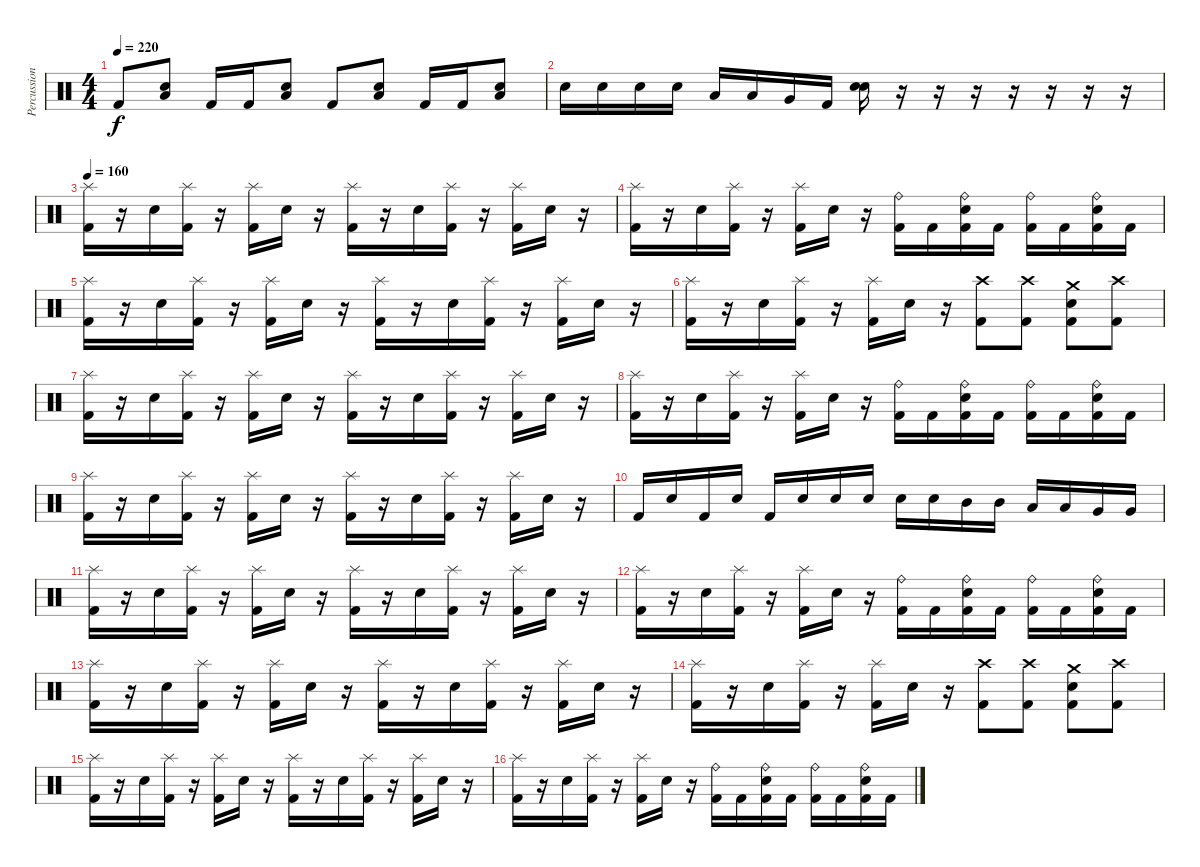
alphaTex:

\track ("Percussion" "Percussion") {instrument percussion}
\staff {score}
\articulation defaults
\ts (4 4)
\tempo 220
\clef neutral
\ks c "Kick (hit) 2".8{dy f}
("Low Floor Tom (hit)" "Snare (hit) 2").8 "Kick (hit) 2".16 "Kick (hit) 2".16 ("Low Floor Tom (hit)" "Snare (hit) 2").8 "Kick (hit) 2".8 ("Low Floor Tom (hit)" "Snare (hit) 2").8 "Kick (hit) 2".16 "Kick (hit) 2".16 ("Low Floor Tom (hit)" "Snare (hit) 2").8 |
"Snare (hit) 2".16 "Snare (hit) 2".16 "Snare (hit) 2".16 "Snare (hit) 2".16 "Low Tom (hit)".16 "Low Tom (hit)".16 "Very Low Tom (hit)".16 "Kick (hit) 2".16 ("Snare (hit) 2" "Snare (hit) 2").16 r.16 r.16 r.16 r.16 r.16 r.16 r.16 |
\tempo 160
("Splash (hit)" "Kick (hit) 2").16 r.16 "Snare (hit) 2".16 ("Splash (hit)" "Kick (hit) 2").16 r.16 ("Splash (hit)" "Kick (hit) 2").16 "Snare (hit) 2".16 r.16 ("Splash (hit)" "Kick (hit) 2").16 r.16 "Snare (hit) 2".16 ("Splash (hit)" "Kick (hit) 2").16 r.16 ("Splash (hit)" "Kick (hit) 2").16 "Snare (hit) 2".16 r.16 |
("Splash (hit)" "Kick (hit) 2").16 r.16 "Snare (hit) 2".16 ("Splash (hit)" "Kick (hit) 2").16 r.16 ("Splash (hit)" "Kick (hit) 2").16 "Snare (hit) 2".16 r.16 ("Ride (bell)" "Kick (hit) 2").16 "Kick (hit) 2".16 ("Ride (bell)" "Snare (hit) 2" "Kick (hit) 2").16 "Kick (hit) 2".16 ("Ride (bell)" "Kick (hit) 2").16 "Kick (hit) 2".16 ("Ride (bell)" "Snare (hit) 2" "Kick (hit) 2").16 "Kick (hit) 2".16 |
("Splash (hit)" "Kick (hit) 2").16 r.16 "Snare (hit) 2".16 ("Splash (hit)" "Kick (hit) 2").16 r.16 ("Splash (hit)" "Kick (hit) 2").16 "Snare (hit) 2".16 r.16 ("Splash (hit)" "Kick (hit) 2").16 r.16 "Snare (hit) 2".16 ("Splash (hit)" "Kick (hit) 2").16 r.16 ("Splash (hit)" "Kick (hit) 2").16 "Snare (hit) 2".16 r.16 |
("Splash (hit)" "Kick (hit) 2").16 r.16 "Snare (hit) 2".16 ("Splash (hit)" "Kick (hit) 2").16 r.16 ("Splash (hit)" "Kick (hit) 2").16 "Snare (hit) 2".16 r.16 ("Crash high (hit)" "Kick (hit) 2").8 ("Crash high (hit)" "Kick (hit) 2").8 ("Crash medium (hit)" "Snare (hit) 2" "Kick (hit) 2").8 ("Crash high (hit)" "Kick (hit) 2").8 |
("Splash (hit)" "Kick (hit) 2").16 r.16 "Snare (hit) 2".16 ("Splash (hit)" "Kick (hit) 2").16 r.16 ("Splash (hit)" "Kick (hit) 2").16 "Snare (hit) 2".16 r.16 ("Splash (hit)" "Kick (hit) 2").16 r.16 "Snare (hit) 2".16 ("Splash (hit)" "Kick (hit) 2").16 r.16 ("Splash (hit)" "Kick (hit) 2").16 "Snare (hit) 2".16 r.16 |
("Splash (hit)" "Kick (hit) 2").16 r.16 "Snare (hit) 2".16 ("Splash (hit)" "Kick (hit) 2").16 r.16 ("Splash (hit)" "Kick (hit) 2").16 "Snare (hit) 2".16 r.16 ("Ride (bell)" "Kick (hit) 2").16 "Kick (hit) 2".16 ("Ride (bell)" "Snare (hit) 2" "Kick (hit) 2").16 "Kick (hit) 2".16 ("Ride (bell)" "Kick (hit) 2").16 "Kick (hit) 2".16 ("Ride (bell)" "Snare (hit) 2" "Kick (hit) 2").16 "Kick (hit) 2".16 |
("Splash (hit)" "Kick (hit) 2").16 r.16 "Snare (hit) 2".16 ("Splash (hit)" "Kick (hit) 2").16 r.16 ("Splash (hit)" "Kick (hit) 2").16 "Snare (hit) 2".16 r.16 ("Splash (hit)" "Kick (hit) 2").16 r.16 "Snare (hit) 2".16 ("Splash (hit)" "Kick (hit) 2").16 r.16 ("Splash (hit)" "Kick (hit) 2").16 "Snare (hit) 2".16 r.16 |
"Kick (hit) 2".16 "Snare (hit) 2".16 "Kick (hit) 2".16 "Snare (hit) 2".16 "Kick (hit) 2".16 "Snare (hit) 2".16 "Snare (hit) 2".16 "Snare (hit) 2".16 "Snare (hit) 2".16 "Snare (hit) 2".16 "Mid Tom (hit)".16 "Mid Tom (hit)".16 "Low Tom (hit)".16 "Low Tom (hit)".16 "Very Low Tom (hit)".16 "Very Low Tom (hit)".16 |
("Splash (hit)" "Kick (hit) 2").16 r.16 "Snare (hit) 2".16 ("Splash (hit)" "Kick (hit) 2").16 r.16 ("Splash (hit)" "Kick (hit) 2").16 "Snare (hit) 2".16 r.16 ("Splash (hit)" "Kick (hit) 2").16 r.16 "Snare (hit) 2".16 ("Splash (hit)" "Kick (hit) 2").16 r.16 ("Splash (hit)" "Kick (hit) 2").16 "Snare (hit) 2".16 r.16 |
("Splash (hit)" "Kick (hit) 2").16 r.16 "Snare (hit) 2".16 ("Splash (hit)" "Kick (hit) 2").16 r.16 ("Splash (hit)" "Kick (hit) 2").16 "Snare (hit) 2".16 r.16 ("Ride (bell)" "Kick (hit) 2").16 "Kick (hit) 2".16 ("Ride (bell)" "Snare (hit) 2" "Kick (hit) 2").16 "Kick (hit) 2".16 ("Ride (bell)" "Kick (hit) 2").16 "Kick (hit) 2".16 ("Ride (bell)" "Snare (hit) 2" "Kick (hit) 2").16 "Kick (hit) 2".16 |
("Splash (hit)" "Kick (hit) 2").16 r.16 "Snare (hit) 2".16 ("Splash (hit)" "Kick (hit) 2").16 r.16 ("Splash (hit)" "Kick (hit) 2").16 "Snare (hit) 2".16 r.16 ("Splash (hit)" "Kick (hit) 2").16 r.16 "Snare (hit) 2".16 ("Splash (hit)" "Kick (hit) 2").16 r.16 ("Splash (hit)" "Kick (hit) 2").16 "Snare (hit) 2".16 r.16 |
("Splash (hit)" "Kick (hit) 2").16 r.16 "Snare (hit) 2".16 ("Splash (hit)" "Kick (hit) 2").16 r.16 ("Splash (hit)" "Kick (hit) 2").16 "Snare (hit) 2".16 r.16 ("Crash high (hit)" "Kick (hit) 2").8 ("Crash high (hit)" "Kick (hit) 2").8 ("Crash medium (hit)" "Snare (hit) 2" "Kick (hit) 2").8 ("Crash high (hit)" "Kick (hit) 2").8 |
("Splash (hit)" "Kick (hit) 2").16 r.16 "Snare (hit) 2".16 ("Splash (hit)" "Kick (hit) 2").16 r.16 ("Splash (hit)" "Kick (hit) 2").16 "Snare (hit) 2".16 r.16 ("Splash (hit)" "Kick (hit) 2").16 r.16 "Snare (hit) 2".16 ("Splash (hit)" "Kick (hit) 2").16 r.16 ("Splash (hit)" "Kick (hit) 2").16 "Snare (hit) 2".16 r.16 |
("Splash (hit)" "Kick (hit) 2").16 r.16 "Snare (hit) 2".16 ("Splash (hit)" "Kick (hit) 2").16 r.16 ("Splash (hit)" "Kick (hit) 2").16 "Snare (hit) 2".16 r.16 ("Ride (bell)" "Kick (hit) 2").16 "Kick (hit) 2".16 ("Ride (bell)" "Snare (hit) 2" "Kick (hit) 2").16 "Kick (hit) 2".16 ("Ride (bell)" "Kick (hit) 2").16 "Kick (hit) 2".16 ("Ride (bell)" "Snare (hit) 2" "Kick (hit) 2").16 "Kick (hit) 2".16
